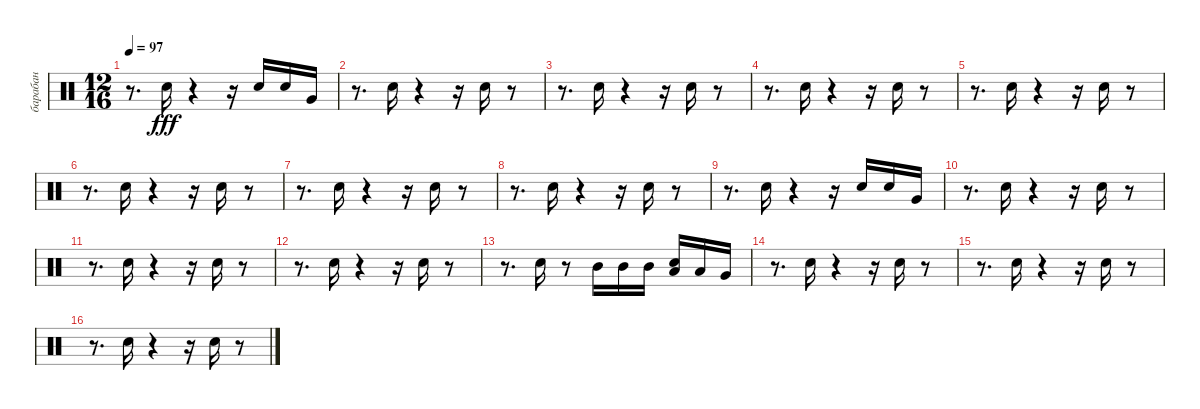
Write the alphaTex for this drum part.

\track ("барабан" "барабан") {instrument percussion}
\staff {score}
\articulation defaults
\ts (12 16)
\tempo 97
\clef neutral
\ks c
r.8{d dy fff} "Snare (hit) 2".16 r.4 r.16 "Snare (hit) 2".16 "Snare (hit) 2".16 "Very Low Tom (hit)".16 |
r.8{d} "Snare (hit) 2".16 r.4 r.16 "Snare (hit) 2".16 r.8 |
r.8{d} "Snare (hit) 2".16 r.4 r.16 "Snare (hit) 2".16 r.8 |
r.8{d} "Snare (hit) 2".16 r.4 r.16 "Snare (hit) 2".16 r.8 |
r.8{d} "Snare (hit) 2".16 r.4 r.16 "Snare (hit) 2".16 r.8 |
r.8{d} "Snare (hit) 2".16 r.4 r.16 "Snare (hit) 2".16 r.8 |
r.8{d} "Snare (hit) 2".16 r.4 r.16 "Snare (hit) 2".16 r.8 |
r.8{d} "Snare (hit) 2".16 r.4 r.16 "Snare (hit) 2".16 r.8 |
r.8{d} "Snare (hit) 2".16 r.4 r.16 "Snare (hit) 2".16 "Snare (hit) 2".16 "Very Low Tom (hit)".16 |
r.8{d} "Snare (hit) 2".16 r.4 r.16 "Snare (hit) 2".16 r.8 |
r.8{d} "Snare (hit) 2".16 r.4 r.16 "Snare (hit) 2".16 r.8 |
r.8{d} "Snare (hit) 2".16 r.4 r.16 "Snare (hit) 2".16 r.8 |
r.8{d} "Snare (hit) 2".16 r.8 "Mid Tom (hit)".16 "Mid Tom (hit)".16 "Mid Tom (hit)".16 ("Snare (hit) 2" "Low Tom (hit)").16 "Low Tom (hit)".16 "Very Low Tom (hit)".16 |
r.8{d} "Snare (hit) 2".16 r.4 r.16 "Snare (hit) 2".16 r.8 |
r.8{d} "Snare (hit) 2".16 r.4 r.16 "Snare (hit) 2".16 r.8 |
r.8{d} "Snare (hit) 2".16 r.4 r.16 "Snare (hit) 2".16 r.8
